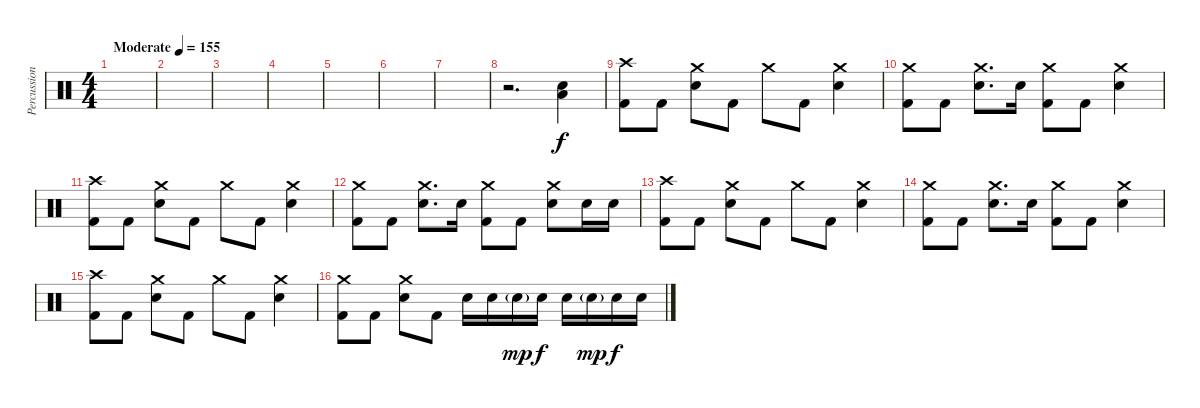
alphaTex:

\track ("Percussion" "Percussion") {instrument percussion}
\staff {score}
\articulation defaults
\ts (4 4)
\tempo (155 "Moderate")
\clef neutral
\ks c
|
|
|
|
|
|
|
r.2{d} ("Low Tom (hit)" "Electric Snare (hit)").4 |
("Crash high (hit)" "Kick (hit) 2").8 "Kick (hit) 2".8 ("Crash medium (hit)" "Electric Snare (hit)").8 "Kick (hit) 2".8 "Crash medium (hit)".8 "Kick (hit) 2".8 ("Crash medium (hit)" "Electric Snare (hit)").4 |
("Crash medium (hit)" "Kick (hit) 2").8 "Kick (hit) 2".8 ("Crash medium (hit)" "Electric Snare (hit)").8{d} "Electric Snare (hit)".16 ("Crash medium (hit)" "Kick (hit) 2").8 "Kick (hit) 2".8 ("Crash medium (hit)" "Electric Snare (hit)").4 |
("Crash high (hit)" "Kick (hit) 2").8 "Kick (hit) 2".8 ("Crash medium (hit)" "Electric Snare (hit)").8 "Kick (hit) 2".8 "Crash medium (hit)".8 "Kick (hit) 2".8 ("Crash medium (hit)" "Electric Snare (hit)").4 |
("Crash medium (hit)" "Kick (hit) 2").8 "Kick (hit) 2".8 ("Crash medium (hit)" "Electric Snare (hit)").8{d} "Electric Snare (hit)".16 ("Crash medium (hit)" "Kick (hit) 2").8 "Kick (hit) 2".8 ("Crash medium (hit)" "Electric Snare (hit)").8 "Electric Snare (hit)".16 "Electric Snare (hit)".16 |
("Crash high (hit)" "Kick (hit) 2").8 "Kick (hit) 2".8 ("Crash medium (hit)" "Electric Snare (hit)").8 "Kick (hit) 2".8 "Crash medium (hit)".8 "Kick (hit) 2".8 ("Crash medium (hit)" "Electric Snare (hit)").4 |
("Crash medium (hit)" "Kick (hit) 2").8 "Kick (hit) 2".8 ("Crash medium (hit)" "Electric Snare (hit)").8{d} "Electric Snare (hit)".16 ("Crash medium (hit)" "Kick (hit) 2").8 "Kick (hit) 2".8 ("Crash medium (hit)" "Electric Snare (hit)").4 |
("Crash high (hit)" "Kick (hit) 2").8 "Kick (hit) 2".8 ("Crash medium (hit)" "Electric Snare (hit)").8 "Kick (hit) 2".8 "Crash medium (hit)".8 "Kick (hit) 2".8 ("Crash medium (hit)" "Electric Snare (hit)").4 |
("Crash medium (hit)" "Kick (hit) 2").8 "Kick (hit) 2".8 ("Crash medium (hit)" "Electric Snare (hit)").8 "Kick (hit) 2".8 "Electric Snare (hit)".16 "Electric Snare (hit)".16 "Electric Snare (hit)"{g}.16{dy mp} "Electric Snare (hit)".16{dy f} "Electric Snare (hit)".16 "Electric Snare (hit)"{g}.16{dy mp} "Electric Snare (hit)".16{dy f} "Electric Snare (hit)".16
